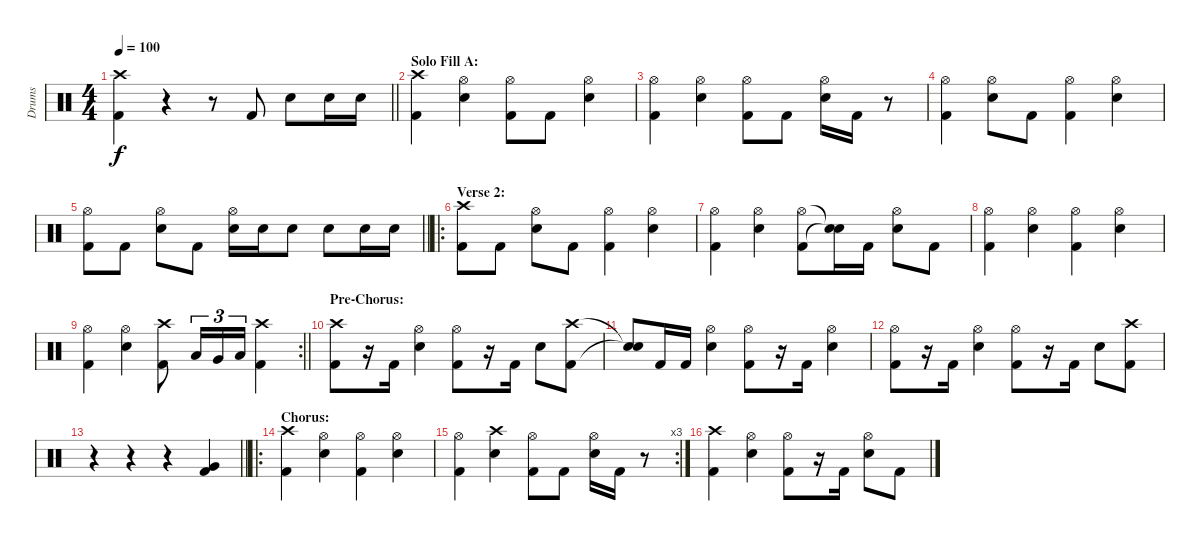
\track ("Drums" "Drums") {instrument percussion}
\staff {score}
\articulation defaults
\ts (4 4)
\tempo 100
\clef neutral
\barLineRight lightlight
\ks c
("Crash high (hit)" "Kick (hit) 2").4{dy f} r.4 r.8 "Kick (hit) 2".8 "Electric Snare (hit)".8 "Electric Snare (hit)".16 "Electric Snare (hit)".16 |
\section ("" "Solo Fill A:")
("Crash high (hit)" "Kick (hit) 2").4 ("Hi-Hat (open)" "Electric Snare (hit)").4 ("Hi-Hat (open)" "Kick (hit) 2").8 "Kick (hit) 2".8 ("Hi-Hat (open)" "Electric Snare (hit)").4 |
("Hi-Hat (open)" "Kick (hit) 2").4 ("Hi-Hat (open)" "Electric Snare (hit)").4 ("Hi-Hat (open)" "Kick (hit) 2").8 "Kick (hit) 2".8 ("Hi-Hat (open)" "Electric Snare (hit)").16 "Kick (hit) 2".16 r.8 |
("Hi-Hat (open)" "Kick (hit) 2").4 ("Hi-Hat (open)" "Electric Snare (hit)").8 "Kick (hit) 2".8 ("Hi-Hat (open)" "Kick (hit) 2").4 ("Hi-Hat (open)" "Electric Snare (hit)").4 |
\barLineRight lightlight
("Hi-Hat (open)" "Kick (hit) 2").8 "Kick (hit) 2".8 ("Hi-Hat (open)" "Electric Snare (hit)").8 "Kick (hit) 2".8 ("Hi-Hat (open)" "Electric Snare (hit)").16 "Electric Snare (hit)".16 "Electric Snare (hit)".8 "Electric Snare (hit)".8 "Electric Snare (hit)".16 "Electric Snare (hit)".16 |
\ro
\section ("" "Verse 2:")
("Crash high (hit)" "Kick (hit) 2").8 "Kick (hit) 2".8 ("Hi-Hat (open)" "Electric Snare (hit)").8 "Kick (hit) 2".8 ("Hi-Hat (open)" "Kick (hit) 2").4 ("Hi-Hat (open)" "Electric Snare (hit)").4 |
("Hi-Hat (open)" "Kick (hit) 2").4 ("Hi-Hat (open)" "Electric Snare (hit)").4 ("Hi-Hat (open)" "Kick (hit) 2").8 ("Snare (hit)"{t} "Snare (hit)"{t}).16 "Kick (hit) 2".16 ("Hi-Hat (open)" "Electric Snare (hit)").8 "Kick (hit) 2".8 |
("Hi-Hat (open)" "Kick (hit) 2").4 ("Hi-Hat (open)" "Electric Snare (hit)").4 ("Hi-Hat (open)" "Kick (hit) 2").4 ("Hi-Hat (open)" "Electric Snare (hit)").4 |
\rc 2
\barLineRight lightlight
("Hi-Hat (open)" "Kick (hit) 2").4 ("Hi-Hat (open)" "Electric Snare (hit)").4 ("Crash high (hit)" "Kick (hit) 2").8 "Low Tom (hit)".16{tu (3 2)} "Very Low Tom (hit)".16{tu (3 2)} "Low Floor Tom (hit)".16{tu (3 2)} ("Crash high (hit)" "Kick (hit) 2").4 |
\section ("" "Pre-Chorus:")
("Crash high (hit)" "Kick (hit) 2").8 r.16 "Kick (hit) 2".16 ("Hi-Hat (open)" "Electric Snare (hit)").4 ("Hi-Hat (open)" "Kick (hit) 2").8 r.16 "Kick (hit) 2".16 "Electric Snare (hit)".8 ("Crash high (hit)" "Kick (hit) 2").8 |
("Snare (hit)"{t} "Snare (hit)"{t}).8 "Kick (hit) 2".16 "Kick (hit) 2".16 ("Hi-Hat (open)" "Electric Snare (hit)").4 ("Hi-Hat (open)" "Kick (hit) 2").8 r.16 "Kick (hit) 2".16 ("Hi-Hat (open)" "Electric Snare (hit)").4 |
("Hi-Hat (open)" "Kick (hit) 2").8 r.16 "Kick (hit) 2".16 ("Hi-Hat (open)" "Electric Snare (hit)").4 ("Hi-Hat (open)" "Kick (hit) 2").8 r.16 "Kick (hit) 2".16 "Electric Snare (hit)".8 ("Crash high (hit)" "Kick (hit) 2").8 |
\barLineRight lightlight
r.4 r.4 r.4 ("Very Low Tom (hit)" "Kick (hit) 2").4 |
\ro
\section ("" "Chorus:")
("Crash high (hit)" "Kick (hit) 2").4 ("Hi-Hat (open)" "Electric Snare (hit)").4 ("Hi-Hat (open)" "Kick (hit) 2").4 ("Hi-Hat (open)" "Electric Snare (hit)").4 |
\rc 3
("Hi-Hat (open)" "Kick (hit) 2").4 ("Crash high (hit)" "Electric Snare (hit)").4 ("Hi-Hat (open)" "Kick (hit) 2").8 "Kick (hit) 2".8 ("Hi-Hat (open)" "Electric Snare (hit)").16 "Kick (hit) 2".16 r.8 |
("Crash high (hit)" "Kick (hit) 2").4 ("Hi-Hat (open)" "Electric Snare (hit)").4 ("Hi-Hat (open)" "Kick (hit) 2").8 r.16 "Kick (hit) 2".16 ("Hi-Hat (open)" "Electric Snare (hit)").8 "Kick (hit) 2".8
